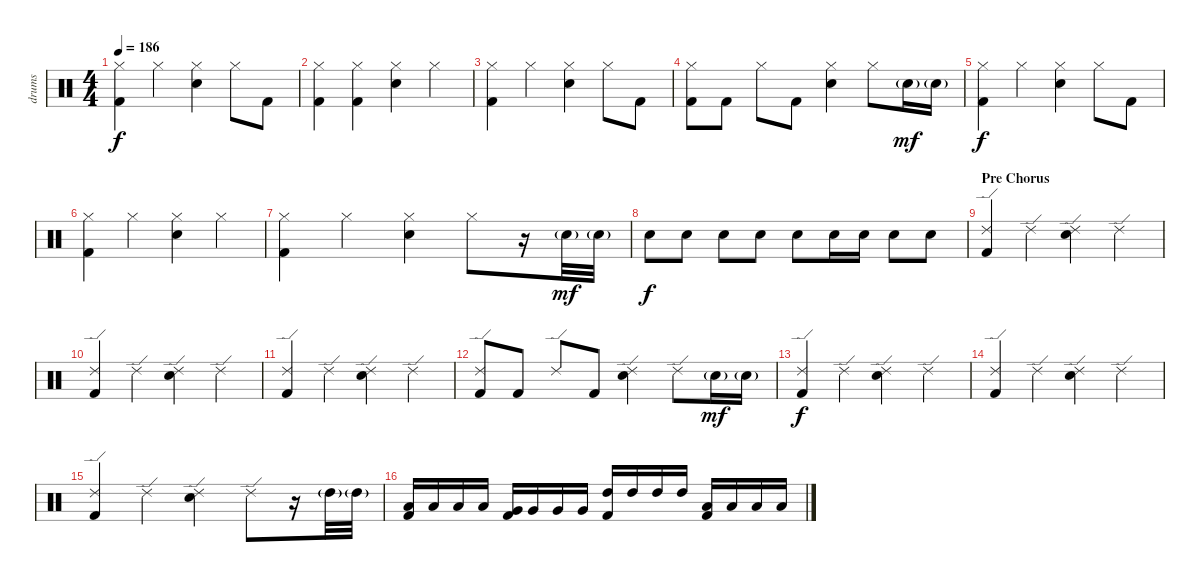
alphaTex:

\track ("drums" "drums") {instrument percussion}
\staff {score}
\articulation defaults
\ts (4 4)
\tempo 186
\clef neutral
\ks c
("Hi-Hat (closed)" "Kick (hit) 2").4{dy f} "Hi-Hat (closed)".4 ("Hi-Hat (closed)" "Electric Snare (hit)").4 "Hi-Hat (closed)".8 "Kick (hit) 2".8 |
("Hi-Hat (closed)" "Kick (hit) 2").4 ("Hi-Hat (closed)" "Kick (hit) 2").4 ("Hi-Hat (closed)" "Electric Snare (hit)").4 "Hi-Hat (closed)".4 |
("Hi-Hat (closed)" "Kick (hit) 2").4 "Hi-Hat (closed)".4 ("Hi-Hat (closed)" "Electric Snare (hit)").4 "Hi-Hat (closed)".8 "Kick (hit) 2".8 |
("Hi-Hat (closed)" "Kick (hit) 2").8 "Kick (hit) 2".8 "Hi-Hat (closed)".8 "Kick (hit) 2".8 ("Hi-Hat (closed)" "Electric Snare (hit)").4 "Hi-Hat (closed)".8 "Electric Snare (hit)"{g}.16{dy mf} "Electric Snare (hit)"{g}.16 |
("Hi-Hat (closed)" "Kick (hit) 2").4{dy f} "Hi-Hat (closed)".4 ("Hi-Hat (closed)" "Electric Snare (hit)").4 "Hi-Hat (closed)".8 "Kick (hit) 2".8 |
("Hi-Hat (closed)" "Kick (hit) 2").4 "Hi-Hat (closed)".4 ("Hi-Hat (closed)" "Electric Snare (hit)").4 "Hi-Hat (closed)".4 |
("Hi-Hat (closed)" "Kick (hit) 2").4 "Hi-Hat (closed)".4 ("Hi-Hat (closed)" "Electric Snare (hit)").4 "Hi-Hat (closed)".8 r.16 "Electric Snare (hit)"{g}.32{dy mf} "Electric Snare (hit)"{g}.32 |
"Electric Snare (hit)".8{dy f} "Electric Snare (hit)".8 "Electric Snare (hit)".8 "Electric Snare (hit)".8 "Electric Snare (hit)".8 "Electric Snare (hit)".16 "Electric Snare (hit)".16 "Electric Snare (hit)".8 "Electric Snare (hit)".8 |
\section ("" "Pre Chorus")
("Ride (edge) 2" "Kick (hit) 2").4 "Ride (edge) 2".4 ("Ride (edge) 2" "Electric Snare (hit)").4 "Ride (edge) 2".4 |
("Ride (edge) 2" "Kick (hit) 2").4 "Ride (edge) 2".4 ("Ride (edge) 2" "Electric Snare (hit)").4 "Ride (edge) 2".4 |
("Ride (edge) 2" "Kick (hit) 2").4 "Ride (edge) 2".4 ("Ride (edge) 2" "Electric Snare (hit)").4 "Ride (edge) 2".4 |
("Ride (edge) 2" "Kick (hit) 2").8 "Kick (hit) 2".8 "Ride (edge) 2".8 "Kick (hit) 2".8 ("Ride (edge) 2" "Electric Snare (hit)").4 "Ride (edge) 2".8 "Electric Snare (hit)"{g}.16{dy mf} "Electric Snare (hit)"{g}.16 |
("Ride (edge) 2" "Kick (hit) 2").4{dy f} "Ride (edge) 2".4 ("Ride (edge) 2" "Electric Snare (hit)").4 "Ride (edge) 2".4 |
("Ride (edge) 2" "Kick (hit) 2").4 "Ride (edge) 2".4 ("Ride (edge) 2" "Electric Snare (hit)").4 "Ride (edge) 2".4 |
("Ride (edge) 2" "Kick (hit) 2").4 "Ride (edge) 2".4 ("Ride (edge) 2" "Electric Snare (hit)").4 "Ride (edge) 2".8 r.16 "High Tom (hit)"{g}.32 "High Tom (hit)"{g}.32 |
("Low Tom (hit)" "Kick (hit) 2").16 "Low Tom (hit)".16 "Low Tom (hit)".16 "Low Tom (hit)".16 ("Very Low Tom (hit)" "Kick (hit) 2").16 "Very Low Tom (hit)".16 "Very Low Tom (hit)".16 "Very Low Tom (hit)".16 ("High Tom (hit)" "Kick (hit) 2").16 "High Tom (hit)".16 "High Tom (hit)".16 "High Tom (hit)".16 ("Low Tom (hit)" "Kick (hit) 2").16 "Low Tom (hit)".16 "Low Tom (hit)".16 "Low Tom (hit)".16
